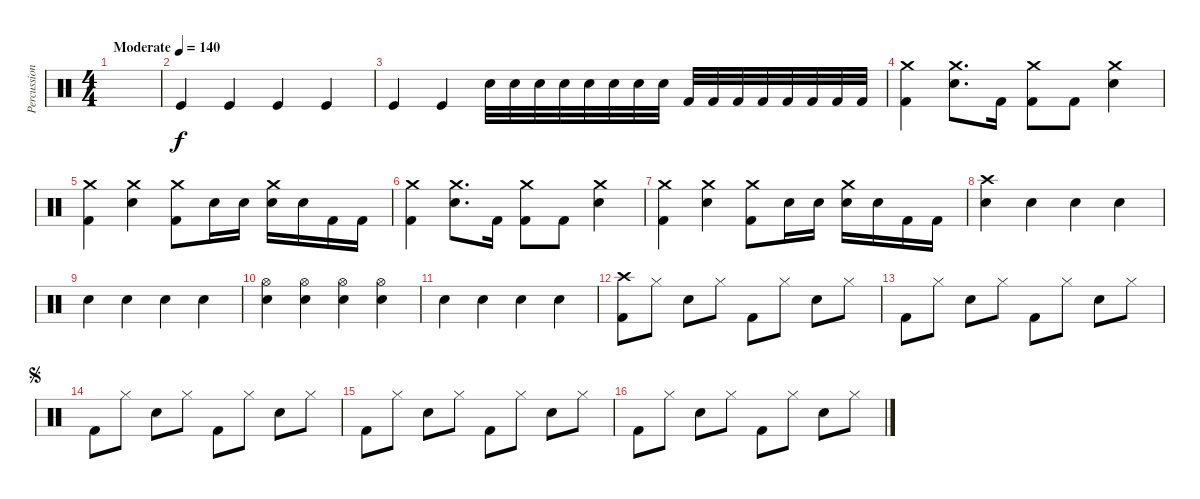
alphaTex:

\track ("Percussion" "Percussion") {instrument percussion}
\staff {score}
\articulation defaults
\ts (4 4)
\tempo (140 "Moderate")
\clef neutral
\ks c
|
"Kick (hit)".4 "Kick (hit)".4 "Kick (hit)".4 "Kick (hit)".4 |
"Kick (hit)".4 "Kick (hit)".4 "Snare (hit) 2".32 "Snare (hit) 2".32 "Snare (hit) 2".32 "Snare (hit) 2".32 "Snare (hit) 2".32 "Snare (hit) 2".32 "Snare (hit) 2".32 "Snare (hit) 2".32 "Kick (hit) 2".32 "Kick (hit) 2".32 "Kick (hit) 2".32 "Kick (hit) 2".32 "Kick (hit) 2".32 "Kick (hit) 2".32 "Kick (hit) 2".32 "Kick (hit) 2".32 |
("Crash medium (hit)" "Kick (hit) 2").4 ("Crash medium (hit)" "Snare (hit) 2").8{d} "Kick (hit) 2".16 ("Crash medium (hit)" "Kick (hit) 2").8 "Kick (hit) 2".8 ("Crash medium (hit)" "Snare (hit) 2").4 |
("Crash medium (hit)" "Kick (hit) 2").4 ("Crash medium (hit)" "Snare (hit) 2").4 ("Crash medium (hit)" "Kick (hit) 2").8 "Snare (hit) 2".16 "Snare (hit) 2".16 ("Crash medium (hit)" "Snare (hit) 2").16 "Snare (hit) 2".16 "Kick (hit) 2".16 "Kick (hit) 2".16 |
("Crash medium (hit)" "Kick (hit) 2").4 ("Crash medium (hit)" "Snare (hit) 2").8{d} "Kick (hit) 2".16 ("Crash medium (hit)" "Kick (hit) 2").8 "Kick (hit) 2".8 ("Crash medium (hit)" "Snare (hit) 2").4 |
("Crash medium (hit)" "Kick (hit) 2").4 ("Crash medium (hit)" "Snare (hit) 2").4 ("Crash medium (hit)" "Kick (hit) 2").8 "Snare (hit) 2".16 "Snare (hit) 2".16 ("Crash medium (hit)" "Snare (hit) 2").16 "Snare (hit) 2".16 "Kick (hit) 2".16 "Kick (hit) 2".16 |
("Crash high (hit)" "Snare (hit) 2").4 "Snare (hit) 2".4 "Snare (hit) 2".4 "Snare (hit) 2".4 |
"Snare (hit) 2".4 "Snare (hit) 2".4 "Snare (hit) 2".4 "Snare (hit) 2".4 |
("Hi-Hat (open)" "Snare (hit) 2").4 ("Hi-Hat (open)" "Snare (hit) 2").4 ("Hi-Hat (open)" "Snare (hit) 2").4 ("Hi-Hat (open)" "Snare (hit) 2").4 |
"Snare (hit) 2".4 "Snare (hit) 2".4 "Snare (hit) 2".4 "Snare (hit) 2".4 |
("Crash high (hit)" "Kick (hit) 2").8 "Hi-Hat (closed)".8 "Snare (hit) 2".8 "Hi-Hat (closed)".8 "Kick (hit) 2".8 "Hi-Hat (closed)".8 "Snare (hit) 2".8 "Hi-Hat (closed)".8 |
"Kick (hit) 2".8 "Hi-Hat (closed)".8 "Snare (hit) 2".8 "Hi-Hat (closed)".8 "Kick (hit) 2".8 "Hi-Hat (closed)".8 "Snare (hit) 2".8 "Hi-Hat (closed)".8 |
\jump segno "Kick (hit) 2".8 "Hi-Hat (closed)".8 "Snare (hit) 2".8 "Hi-Hat (closed)".8 "Kick (hit) 2".8 "Hi-Hat (closed)".8 "Snare (hit) 2".8 "Hi-Hat (closed)".8
|
"Kick (hit) 2".8 "Hi-Hat (closed)".8 "Snare (hit) 2".8 "Hi-Hat (closed)".8 "Kick (hit) 2".8 "Hi-Hat (closed)".8 "Snare (hit) 2".8 "Hi-Hat (closed)".8 |
"Kick (hit) 2".8 "Hi-Hat (closed)".8 "Snare (hit) 2".8 "Hi-Hat (closed)".8 "Kick (hit) 2".8 "Hi-Hat (closed)".8 "Snare (hit) 2".8 "Hi-Hat (closed)".8
